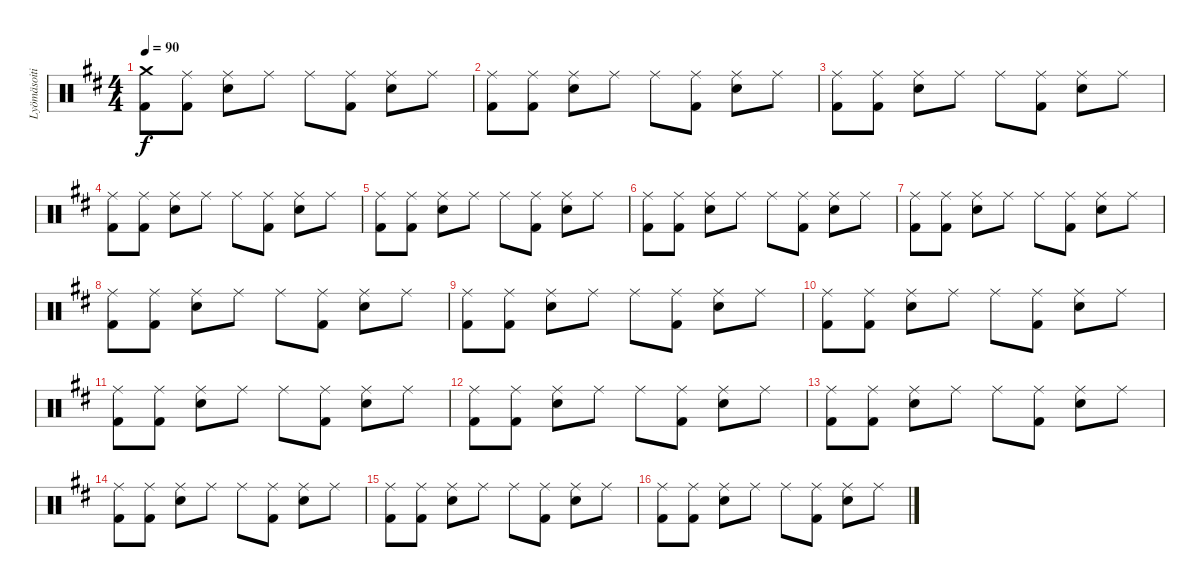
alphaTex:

\track ("Lyömäsoitin" "Lyömäsoiti") {instrument percussion}
\staff {score}
\articulation defaults
\ts (4 4)
\tempo 90
\clef neutral
\ks d
("Crash medium (hit)" "Kick (hit) 2").8{dy f} ("Ride (middle)" "Kick (hit) 2").8 ("Ride (middle)" "Snare (hit) 2").8 "Ride (middle)".8 "Ride (middle)".8 ("Ride (middle)" "Kick (hit) 2").8 ("Ride (middle)" "Snare (hit) 2").8 "Ride (middle)".8 |
("Ride (middle)" "Kick (hit) 2").8 ("Ride (middle)" "Kick (hit) 2").8 ("Ride (middle)" "Snare (hit) 2").8 "Ride (middle)".8 "Ride (middle)".8 ("Ride (middle)" "Kick (hit) 2").8 ("Ride (middle)" "Snare (hit) 2").8 "Ride (middle)".8 |
("Ride (middle)" "Kick (hit) 2").8 ("Ride (middle)" "Kick (hit) 2").8 ("Ride (middle)" "Snare (hit) 2").8 "Ride (middle)".8 "Ride (middle)".8 ("Ride (middle)" "Kick (hit) 2").8 ("Ride (middle)" "Snare (hit) 2").8 "Ride (middle)".8 |
("Ride (middle)" "Kick (hit) 2").8 ("Ride (middle)" "Kick (hit) 2").8 ("Ride (middle)" "Snare (hit) 2").8 "Ride (middle)".8 "Ride (middle)".8 ("Ride (middle)" "Kick (hit) 2").8 ("Ride (middle)" "Snare (hit) 2").8 "Ride (middle)".8 |
("Ride (middle)" "Kick (hit) 2").8 ("Ride (middle)" "Kick (hit) 2").8 ("Ride (middle)" "Snare (hit) 2").8 "Ride (middle)".8 "Ride (middle)".8 ("Ride (middle)" "Kick (hit) 2").8 ("Ride (middle)" "Snare (hit) 2").8 "Ride (middle)".8 |
("Ride (middle)" "Kick (hit) 2").8 ("Ride (middle)" "Kick (hit) 2").8 ("Ride (middle)" "Snare (hit) 2").8 "Ride (middle)".8 "Ride (middle)".8 ("Ride (middle)" "Kick (hit) 2").8 ("Ride (middle)" "Snare (hit) 2").8 "Ride (middle)".8 |
("Ride (middle)" "Kick (hit) 2").8 ("Ride (middle)" "Kick (hit) 2").8 ("Ride (middle)" "Snare (hit) 2").8 "Ride (middle)".8 "Ride (middle)".8 ("Ride (middle)" "Kick (hit) 2").8 ("Ride (middle)" "Snare (hit) 2").8 "Ride (middle)".8 |
("Ride (middle)" "Kick (hit) 2").8 ("Ride (middle)" "Kick (hit) 2").8 ("Ride (middle)" "Snare (hit) 2").8 "Ride (middle)".8 "Ride (middle)".8 ("Ride (middle)" "Kick (hit) 2").8 ("Ride (middle)" "Snare (hit) 2").8 "Ride (middle)".8 |
("Ride (middle)" "Kick (hit) 2").8 ("Ride (middle)" "Kick (hit) 2").8 ("Ride (middle)" "Snare (hit) 2").8 "Ride (middle)".8 "Ride (middle)".8 ("Ride (middle)" "Kick (hit) 2").8 ("Ride (middle)" "Snare (hit) 2").8 "Ride (middle)".8 |
("Ride (middle)" "Kick (hit) 2").8 ("Ride (middle)" "Kick (hit) 2").8 ("Ride (middle)" "Snare (hit) 2").8 "Ride (middle)".8 "Ride (middle)".8 ("Ride (middle)" "Kick (hit) 2").8 ("Ride (middle)" "Snare (hit) 2").8 "Ride (middle)".8 |
("Ride (middle)" "Kick (hit) 2").8 ("Ride (middle)" "Kick (hit) 2").8 ("Ride (middle)" "Snare (hit) 2").8 "Ride (middle)".8 "Ride (middle)".8 ("Ride (middle)" "Kick (hit) 2").8 ("Ride (middle)" "Snare (hit) 2").8 "Ride (middle)".8 |
("Ride (middle)" "Kick (hit) 2").8 ("Ride (middle)" "Kick (hit) 2").8 ("Ride (middle)" "Snare (hit) 2").8 "Ride (middle)".8 "Ride (middle)".8 ("Ride (middle)" "Kick (hit) 2").8 ("Ride (middle)" "Snare (hit) 2").8 "Ride (middle)".8 |
("Ride (middle)" "Kick (hit) 2").8 ("Ride (middle)" "Kick (hit) 2").8 ("Ride (middle)" "Snare (hit) 2").8 "Ride (middle)".8 "Ride (middle)".8 ("Ride (middle)" "Kick (hit) 2").8 ("Ride (middle)" "Snare (hit) 2").8 "Ride (middle)".8 |
("Ride (middle)" "Kick (hit) 2").8 ("Ride (middle)" "Kick (hit) 2").8 ("Ride (middle)" "Snare (hit) 2").8 "Ride (middle)".8 "Ride (middle)".8 ("Ride (middle)" "Kick (hit) 2").8 ("Ride (middle)" "Snare (hit) 2").8 "Ride (middle)".8 |
("Ride (middle)" "Kick (hit) 2").8 ("Ride (middle)" "Kick (hit) 2").8 ("Ride (middle)" "Snare (hit) 2").8 "Ride (middle)".8 "Ride (middle)".8 ("Ride (middle)" "Kick (hit) 2").8 ("Ride (middle)" "Snare (hit) 2").8 "Ride (middle)".8 |
("Ride (middle)" "Kick (hit) 2").8 ("Ride (middle)" "Kick (hit) 2").8 ("Ride (middle)" "Snare (hit) 2").8 "Ride (middle)".8 "Ride (middle)".8 ("Ride (middle)" "Kick (hit) 2").8 ("Ride (middle)" "Snare (hit) 2").8 "Ride (middle)".8
